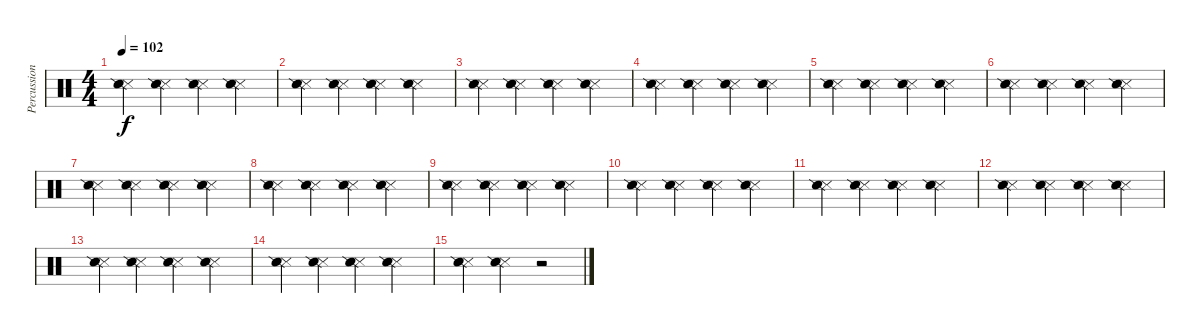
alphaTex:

\track ("Percussion" "Percussion") {instrument percussion}
\staff {score}
\articulation defaults
\ts (4 4)
\tempo 102
\clef neutral
\ks c
("Metronome (hit)" "Snare (side stick) 2").4{dy f} ("Metronome (hit)" "Snare (side stick) 2").4 ("Metronome (hit)" "Snare (side stick) 2").4 ("Metronome (hit)" "Snare (side stick) 2").4 |
("Metronome (hit)" "Snare (side stick) 2").4 ("Metronome (hit)" "Snare (side stick) 2").4 ("Metronome (hit)" "Snare (side stick) 2").4 ("Metronome (hit)" "Snare (side stick) 2").4 |
("Metronome (hit)" "Snare (side stick) 2").4 ("Metronome (hit)" "Snare (side stick) 2").4 ("Metronome (hit)" "Snare (side stick) 2").4 ("Metronome (hit)" "Snare (side stick) 2").4 |
("Metronome (hit)" "Snare (side stick) 2").4 ("Metronome (hit)" "Snare (side stick) 2").4 ("Metronome (hit)" "Snare (side stick) 2").4 ("Metronome (hit)" "Snare (side stick) 2").4 |
("Metronome (hit)" "Snare (side stick) 2").4 ("Metronome (hit)" "Snare (side stick) 2").4 ("Metronome (hit)" "Snare (side stick) 2").4 ("Metronome (hit)" "Snare (side stick) 2").4 |
("Metronome (hit)" "Snare (side stick) 2").4 ("Metronome (hit)" "Snare (side stick) 2").4 ("Metronome (hit)" "Snare (side stick) 2").4 ("Metronome (hit)" "Snare (side stick) 2").4 |
("Metronome (hit)" "Snare (side stick) 2").4 ("Metronome (hit)" "Snare (side stick) 2").4 ("Metronome (hit)" "Snare (side stick) 2").4 ("Metronome (hit)" "Snare (side stick) 2").4 |
("Metronome (hit)" "Snare (side stick) 2").4 ("Metronome (hit)" "Snare (side stick) 2").4 ("Metronome (hit)" "Snare (side stick) 2").4 ("Metronome (hit)" "Snare (side stick) 2").4 |
("Metronome (hit)" "Snare (side stick) 2").4 ("Metronome (hit)" "Snare (side stick) 2").4 ("Metronome (hit)" "Snare (side stick) 2").4 ("Metronome (hit)" "Snare (side stick) 2").4 |
("Metronome (hit)" "Snare (side stick) 2").4 ("Metronome (hit)" "Snare (side stick) 2").4 ("Metronome (hit)" "Snare (side stick) 2").4 ("Metronome (hit)" "Snare (side stick) 2").4 |
("Metronome (hit)" "Snare (side stick) 2").4 ("Metronome (hit)" "Snare (side stick) 2").4 ("Metronome (hit)" "Snare (side stick) 2").4 ("Metronome (hit)" "Snare (side stick) 2").4 |
("Metronome (hit)" "Snare (side stick) 2").4 ("Metronome (hit)" "Snare (side stick) 2").4 ("Metronome (hit)" "Snare (side stick) 2").4 ("Metronome (hit)" "Snare (side stick) 2").4 |
("Metronome (hit)" "Snare (side stick) 2").4 ("Metronome (hit)" "Snare (side stick) 2").4 ("Metronome (hit)" "Snare (side stick) 2").4 ("Metronome (hit)" "Snare (side stick) 2").4 |
("Metronome (hit)" "Snare (side stick) 2").4 ("Metronome (hit)" "Snare (side stick) 2").4 ("Metronome (hit)" "Snare (side stick) 2").4 ("Metronome (hit)" "Snare (side stick) 2").4 |
("Metronome (hit)" "Snare (side stick) 2").4 ("Metronome (hit)" "Snare (side stick) 2").4 r.2
